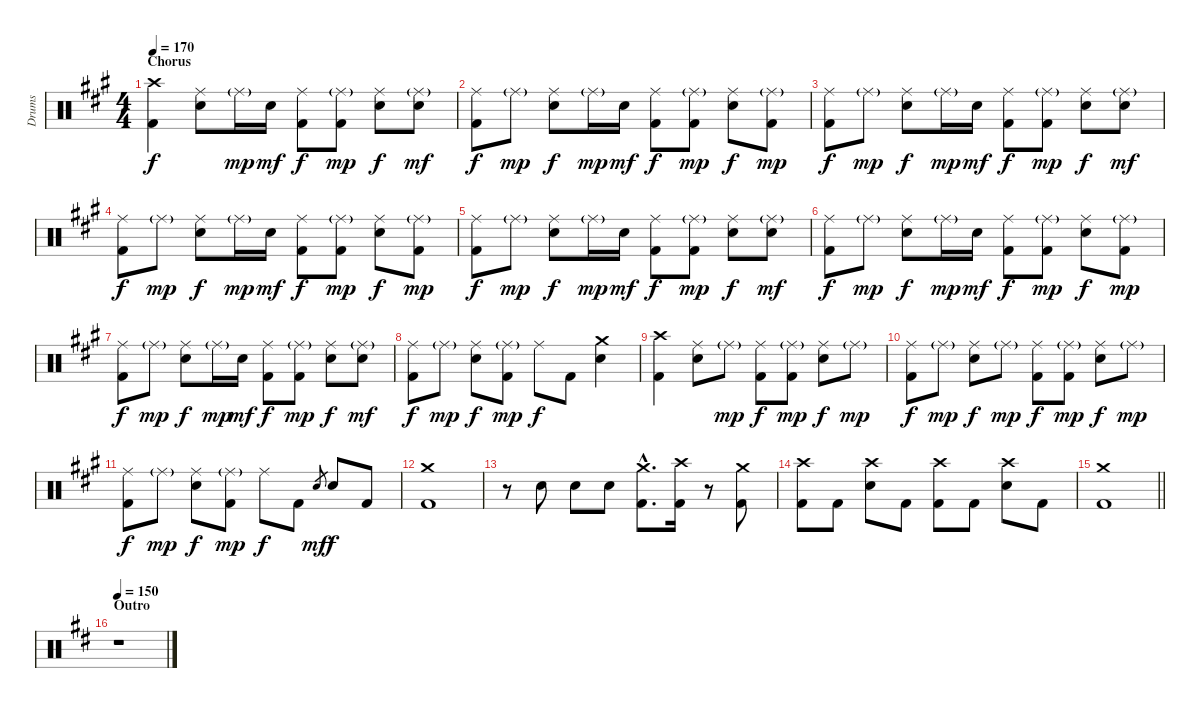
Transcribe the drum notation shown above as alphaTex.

\track ("Drums" "Drums") {instrument percussion}
\staff {score}
\articulation defaults
\ts (4 4)
\section ("" "Chorus")
\tempo 170
\clef neutral
\ks a
("Crash high (hit)" "Kick (hit) 2").4{dy f} ("Ride (middle)" "Electric Snare (hit)").8 "Ride (middle)"{g}.16{dy mp} "Electric Snare (hit)".16{dy mf} ("Ride (middle)" "Kick (hit) 2").8{dy f} ("Ride (middle)"{g} "Kick (hit) 2").8{dy mp} ("Ride (middle)" "Electric Snare (hit)").8{dy f} ("Ride (middle)"{g} "Electric Snare (hit)").8{dy mf} |
("Ride (middle)" "Kick (hit) 2").8{dy f} "Ride (middle)"{g}.8{dy mp} ("Ride (middle)" "Electric Snare (hit)").8{dy f} "Ride (middle)"{g}.16{dy mp} "Electric Snare (hit)".16{dy mf} ("Ride (middle)" "Kick (hit) 2").8{dy f} ("Ride (middle)"{g} "Kick (hit) 2").8{dy mp} ("Ride (middle)" "Electric Snare (hit)").8{dy f} ("Ride (middle)"{g} "Kick (hit) 2").8{dy mp} |
("Ride (middle)" "Kick (hit) 2").8{dy f} "Ride (middle)"{g}.8{dy mp} ("Ride (middle)" "Electric Snare (hit)").8{dy f} "Ride (middle)"{g}.16{dy mp} "Electric Snare (hit)".16{dy mf} ("Ride (middle)" "Kick (hit) 2").8{dy f} ("Ride (middle)"{g} "Kick (hit) 2").8{dy mp} ("Ride (middle)" "Electric Snare (hit)").8{dy f} ("Ride (middle)"{g} "Electric Snare (hit)").8{dy mf} |
("Ride (middle)" "Kick (hit) 2").8{dy f} "Ride (middle)"{g}.8{dy mp} ("Ride (middle)" "Electric Snare (hit)").8{dy f} "Ride (middle)"{g}.16{dy mp} "Electric Snare (hit)".16{dy mf} ("Ride (middle)" "Kick (hit) 2").8{dy f} ("Ride (middle)"{g} "Kick (hit) 2").8{dy mp} ("Ride (middle)" "Electric Snare (hit)").8{dy f} ("Ride (middle)"{g} "Kick (hit) 2").8{dy mp} |
("Ride (middle)" "Kick (hit) 2").8{dy f} "Ride (middle)"{g}.8{dy mp} ("Ride (middle)" "Electric Snare (hit)").8{dy f} "Ride (middle)"{g}.16{dy mp} "Electric Snare (hit)".16{dy mf} ("Ride (middle)" "Kick (hit) 2").8{dy f} ("Ride (middle)"{g} "Kick (hit) 2").8{dy mp} ("Ride (middle)" "Electric Snare (hit)").8{dy f} ("Ride (middle)"{g} "Electric Snare (hit)").8{dy mf} |
("Ride (middle)" "Kick (hit) 2").8{dy f} "Ride (middle)"{g}.8{dy mp} ("Ride (middle)" "Electric Snare (hit)").8{dy f} "Ride (middle)"{g}.16{dy mp} "Electric Snare (hit)".16{dy mf} ("Ride (middle)" "Kick (hit) 2").8{dy f} ("Ride (middle)"{g} "Kick (hit) 2").8{dy mp} ("Ride (middle)" "Electric Snare (hit)").8{dy f} ("Ride (middle)"{g} "Kick (hit) 2").8{dy mp} |
("Ride (middle)" "Kick (hit) 2").8{dy f} "Ride (middle)"{g}.8{dy mp} ("Ride (middle)" "Electric Snare (hit)").8{dy f} "Ride (middle)"{g}.16{dy mp} "Electric Snare (hit)".16{dy mf} ("Ride (middle)" "Kick (hit) 2").8{dy f} ("Ride (middle)"{g} "Kick (hit) 2").8{dy mp} ("Ride (middle)" "Electric Snare (hit)").8{dy f} ("Ride (middle)"{g} "Electric Snare (hit)").8{dy mf} |
("Ride (middle)" "Kick (hit) 2").8{dy f} "Ride (middle)"{g}.8{dy mp} ("Ride (middle)" "Electric Snare (hit)").8{dy f} ("Ride (middle)"{g} "Kick (hit) 2").8{dy mp} "Ride (middle)".8{dy f} "Kick (hit) 2".8 ("Crash medium (hit)" "Electric Snare (hit)").4 |
("Crash high (hit)" "Kick (hit) 2").4 ("Ride (middle)" "Electric Snare (hit)").8 "Ride (middle)"{g}.8{dy mp} ("Ride (middle)" "Kick (hit) 2").8{dy f} ("Ride (middle)"{g} "Kick (hit) 2").8{dy mp} ("Ride (middle)" "Electric Snare (hit)").8{dy f} "Ride (middle)"{g}.8{dy mp} |
("Ride (middle)" "Kick (hit) 2").8{dy f} "Ride (middle)"{g}.8{dy mp} ("Ride (middle)" "Electric Snare (hit)").8{dy f} "Ride (middle)"{g}.8{dy mp} ("Ride (middle)" "Kick (hit) 2").8{dy f} ("Ride (middle)"{g} "Kick (hit) 2").8{dy mp} ("Ride (middle)" "Electric Snare (hit)").8{dy f} "Ride (middle)"{g}.8{dy mp} |
("Ride (middle)" "Kick (hit) 2").8{dy f} "Ride (middle)"{g}.8{dy mp} ("Ride (middle)" "Electric Snare (hit)").8{dy f} ("Ride (middle)"{g} "Kick (hit) 2").8{dy mp} "Ride (middle)".8{dy f} "Kick (hit) 2".8 "Electric Snare (hit)".8{gr dy mf} "Electric Snare (hit)".8{dy f} "Kick (hit) 2".8 |
("Crash medium (hit)" "Kick (hit) 2").1 |
r.8 "Electric Snare (hit)".8 "Electric Snare (hit)".8 "Electric Snare (hit)".8 ("Crash medium (hit)"{hac} "Kick (hit) 2"{hac}).8{d} ("Crash high (hit)" "Kick (hit) 2").16 r.8 ("Crash medium (hit)" "Kick (hit) 2").8 |
("Crash high (hit)" "Kick (hit) 2").8 "Kick (hit) 2".8 ("Crash high (hit)" "Electric Snare (hit)").8 "Kick (hit) 2".8 ("Crash high (hit)" "Kick (hit) 2").8 "Kick (hit) 2".8 ("Crash high (hit)" "Electric Snare (hit)").8 "Kick (hit) 2".8 |
\barLineRight lightlight
("Crash medium (hit)" "Kick (hit) 2").1 |
\section ("" "Outro")
\tempo 150
\ks d
r.1
